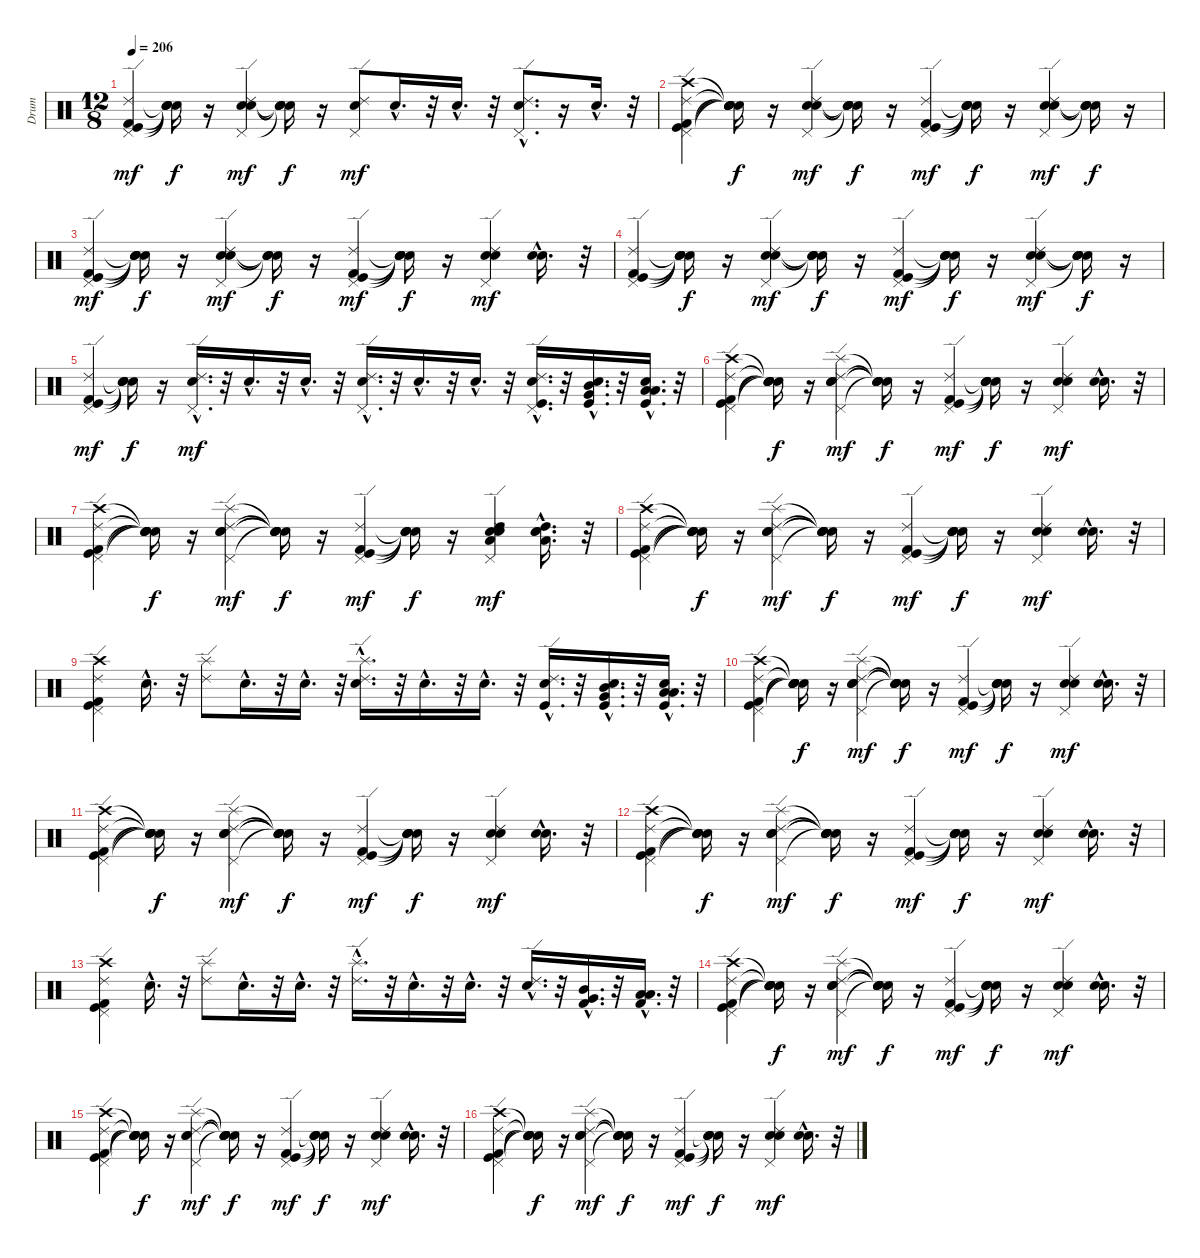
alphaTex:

\track ("Drum" "Drum") {instrument percussion}
\staff {score}
\articulation defaults
\ts (12 8)
\tempo 206
\clef neutral
\ks c
("Kick (hit)" "Kick (hit) 2" "Pedal Hi-Hat (hit)" "Ride (edge) 2").4{dy mf} ("Snare (hit)"{t} "Snare (hit)"{t} "Snare (hit)"{t} "Snare (hit)"{t}).16{dy f} r.16 ("Snare (hit) 2" "Pedal Hi-Hat (hit)" "Electric Snare (hit)" "Ride (edge) 2").4{dy mf} ("Snare (hit)"{t} "Snare (hit)"{t} "Snare (hit)"{t} "Snare (hit)"{t}).16{dy f} r.16 ("Snare (hit) 2" "Pedal Hi-Hat (hit)" "Ride (edge) 2").8{dy mf} "Snare (hit) 2"{hac}.16{d} r.32 "Snare (hit) 2"{hac}.16{d} r.32 ("Ride (edge) 2"{hac} "Pedal Hi-Hat (hit)"{hac} "Snare (hit) 2"{hac}).8{d} r.16 "Snare (hit) 2"{hac}.16{d} r.32 |
("Pedal Hi-Hat (hit)" "Crash high (hit)" "Kick (hit) 2" "Kick (hit)" "Ride (edge) 2").4 ("Snare (hit)"{t} "Snare (hit)"{t} "Snare (hit)"{t} "Snare (hit)"{t} "Snare (hit)"{t}).16{dy f} r.16 ("Electric Snare (hit)" "Snare (hit) 2" "Pedal Hi-Hat (hit)" "Ride (edge) 2").4{dy mf} ("Snare (hit)"{t} "Snare (hit)"{t} "Snare (hit)"{t} "Snare (hit)"{t}).16{dy f} r.16 ("Kick (hit) 2" "Pedal Hi-Hat (hit)" "Kick (hit)" "Ride (edge) 2").4{dy mf} ("Snare (hit)"{t} "Snare (hit)"{t} "Snare (hit)"{t} "Snare (hit)"{t}).16{dy f} r.16 ("Pedal Hi-Hat (hit)" "Electric Snare (hit)" "Snare (hit) 2" "Ride (edge) 2").4{dy mf} ("Snare (hit)"{t} "Snare (hit)"{t} "Snare (hit)"{t} "Snare (hit)"{t}).16{dy f} r.16 |
("Kick (hit) 2" "Kick (hit)" "Pedal Hi-Hat (hit)" "Ride (edge) 2").4{dy mf} ("Snare (hit)"{t} "Snare (hit)"{t} "Snare (hit)"{t} "Snare (hit)"{t}).16{dy f} r.16 ("Pedal Hi-Hat (hit)" "Electric Snare (hit)" "Snare (hit) 2" "Ride (edge) 2").4{dy mf} ("Snare (hit)"{t} "Snare (hit)"{t} "Snare (hit)"{t} "Snare (hit)"{t}).16{dy f} r.16 ("Kick (hit)" "Kick (hit) 2" "Pedal Hi-Hat (hit)" "Ride (edge) 2").4{dy mf} ("Snare (hit)"{t} "Snare (hit)"{t} "Snare (hit)"{t} "Snare (hit)"{t}).16{dy f} r.16 ("Pedal Hi-Hat (hit)" "Snare (hit) 2" "Electric Snare (hit)" "Ride (edge) 2").4{dy mf} ("Snare (hit) 2"{hac} "Electric Snare (hit)"{hac}).16{d} r.32 |
("Pedal Hi-Hat (hit)" "Kick (hit) 2" "Kick (hit)" "Ride (edge) 2").4 ("Snare (hit)"{t} "Snare (hit)"{t} "Snare (hit)"{t} "Snare (hit)"{t}).16{dy f} r.16 ("Snare (hit) 2" "Electric Snare (hit)" "Pedal Hi-Hat (hit)" "Ride (edge) 2").4{dy mf} ("Snare (hit)"{t} "Snare (hit)"{t} "Snare (hit)"{t} "Snare (hit)"{t}).16{dy f} r.16 ("Pedal Hi-Hat (hit)" "Kick (hit)" "Kick (hit) 2" "Ride (edge) 2").4{dy mf} ("Snare (hit)"{t} "Snare (hit)"{t} "Snare (hit)"{t} "Snare (hit)"{t}).16{dy f} r.16 ("Electric Snare (hit)" "Snare (hit) 2" "Pedal Hi-Hat (hit)" "Ride (edge) 2").4{dy mf} ("Snare (hit)"{t} "Snare (hit)"{t} "Snare (hit)"{t} "Snare (hit)"{t}).16{dy f} r.16 |
("Kick (hit)" "Kick (hit) 2" "Pedal Hi-Hat (hit)" "Ride (edge) 2").4{dy mf} ("Snare (hit)"{t} "Snare (hit)"{t} "Snare (hit)"{t} "Snare (hit)"{t}).16{dy f} r.16 ("Snare (hit) 2"{hac} "Ride (edge) 2"{hac} "Pedal Hi-Hat (hit)"{hac}).16{d dy mf} r.32 "Snare (hit) 2"{hac}.16{d} r.32 "Snare (hit) 2"{hac}.16{d} r.32 ("Electric Snare (hit)"{hac} "Ride (edge) 2"{hac} "Pedal Hi-Hat (hit)"{hac}).16{d} r.32 "Electric Snare (hit)"{hac}.16{d} r.32 "Electric Snare (hit)"{hac}.16{d} r.32 ("Snare (hit) 2"{hac} "Ride (edge) 2"{hac} "Pedal Hi-Hat (hit)"{hac} "Kick (hit)"{hac}).16{d} r.32 ("Snare (hit) 2"{hac} "Mid Tom (hit)"{hac} "Very Low Tom (hit)"{hac} "Kick (hit)"{hac}).16{d} r.32 ("Snare (hit) 2"{hac} "Low Tom (hit)"{hac} "Low Floor Tom (hit)"{hac} "Kick (hit)"{hac}).16{d} r.32 |
("Crash high (hit)" "Ride (edge) 2" "Kick (hit) 2" "Kick (hit)" "Pedal Hi-Hat (hit)").4 ("Snare (hit)"{t} "Snare (hit)"{t} "Snare (hit)"{t} "Snare (hit)"{t} "Snare (hit)"{t}).16{dy f} r.16 ("Splash (hit)" "Ride (edge) 2" "Pedal Hi-Hat (hit)" "Electric Snare (hit)" "Snare (hit) 2").4{dy mf} ("Snare (hit)"{t} "Snare (hit)"{t} "Snare (hit)"{t} "Snare (hit)"{t} "Snare (hit)"{t}).16{dy f} r.16 ("Ride (edge) 2" "Kick (hit)" "Kick (hit) 2" "Pedal Hi-Hat (hit)").4{dy mf} ("Snare (hit)"{t} "Snare (hit)"{t} "Snare (hit)"{t} "Snare (hit)"{t}).16{dy f} r.16 ("Ride (edge) 2" "Pedal Hi-Hat (hit)" "Snare (hit) 2" "Electric Snare (hit)").4{dy mf} ("Snare (hit) 2"{hac} "Electric Snare (hit)"{hac}).16{d} r.32 |
("Kick (hit)" "Crash high (hit)" "Pedal Hi-Hat (hit)" "Kick (hit) 2" "Ride (edge) 2").4 ("Snare (hit)"{t} "Snare (hit)"{t} "Snare (hit)"{t} "Snare (hit)"{t} "Snare (hit)"{t}).16{dy f} r.16 ("Pedal Hi-Hat (hit)" "Snare (hit) 2" "Electric Snare (hit)" "Splash (hit)" "Ride (edge) 2").4{dy mf} ("Snare (hit)"{t} "Snare (hit)"{t} "Snare (hit)"{t} "Snare (hit)"{t} "Snare (hit)"{t}).16{dy f} r.16 ("Kick (hit) 2" "Kick (hit)" "Ride (edge) 2" "Pedal Hi-Hat (hit)").4{dy mf} ("Snare (hit)"{t} "Snare (hit)"{t} "Snare (hit)"{t} "Snare (hit)"{t}).16{dy f} r.16 ("Snare (hit) 2" "Ride (edge) 2" "Electric Snare (hit)" "Pedal Hi-Hat (hit)" "High Tom (hit)" "Low Tom (hit)").4{dy mf} ("Snare (hit) 2"{hac} "Electric Snare (hit)"{hac} "Low Tom (hit)"{hac} "High Tom (hit)"{hac}).16{d} r.32 |
("Crash high (hit)" "Ride (edge) 2" "Kick (hit) 2" "Kick (hit)" "Pedal Hi-Hat (hit)").4 ("Snare (hit)"{t} "Snare (hit)"{t} "Snare (hit)"{t} "Snare (hit)"{t} "Snare (hit)"{t}).16{dy f} r.16 ("Splash (hit)" "Ride (edge) 2" "Pedal Hi-Hat (hit)" "Electric Snare (hit)" "Snare (hit) 2").4{dy mf} ("Snare (hit)"{t} "Snare (hit)"{t} "Snare (hit)"{t} "Snare (hit)"{t} "Snare (hit)"{t}).16{dy f} r.16 ("Ride (edge) 2" "Kick (hit)" "Kick (hit) 2" "Pedal Hi-Hat (hit)").4{dy mf} ("Snare (hit)"{t} "Snare (hit)"{t} "Snare (hit)"{t} "Snare (hit)"{t}).16{dy f} r.16 ("Ride (edge) 2" "Pedal Hi-Hat (hit)" "Snare (hit) 2" "Electric Snare (hit)").4{dy mf} ("Snare (hit) 2"{hac} "Electric Snare (hit)"{hac}).16{d} r.32 |
("Crash high (hit)" "Ride (edge) 2" "Kick (hit) 2" "Kick (hit)" "Pedal Hi-Hat (hit)").4 "Snare (hit) 2"{hac}.16{d} r.32 ("Splash (hit)" "Ride (edge) 2").8 "Snare (hit) 2"{hac}.16{d} r.32 "Snare (hit) 2"{hac}.16{d} r.32 ("Electric Snare (hit)"{hac} "Splash (hit)"{hac} "Ride (edge) 2"{hac}).16{d} r.32 "Electric Snare (hit)"{hac}.16{d} r.32 "Electric Snare (hit)"{hac}.16{d} r.32 ("Snare (hit) 2"{hac} "Kick (hit)"{hac} "Ride (edge) 2"{hac}).16{d} r.32 ("Snare (hit) 2"{hac} "Kick (hit)"{hac} "Mid Tom (hit)"{hac} "Very Low Tom (hit)"{hac}).16{d} r.32 ("Snare (hit) 2"{hac} "Kick (hit)"{hac} "Low Tom (hit)"{hac} "Low Floor Tom (hit)"{hac}).16{d} r.32 |
("Crash high (hit)" "Ride (edge) 2" "Kick (hit) 2" "Kick (hit)" "Pedal Hi-Hat (hit)").4 ("Snare (hit)"{t} "Snare (hit)"{t} "Snare (hit)"{t} "Snare (hit)"{t} "Snare (hit)"{t}).16{dy f} r.16 ("Splash (hit)" "Ride (edge) 2" "Pedal Hi-Hat (hit)" "Electric Snare (hit)" "Snare (hit) 2").4{dy mf} ("Snare (hit)"{t} "Snare (hit)"{t} "Snare (hit)"{t} "Snare (hit)"{t} "Snare (hit)"{t}).16{dy f} r.16 ("Ride (edge) 2" "Kick (hit)" "Kick (hit) 2" "Pedal Hi-Hat (hit)").4{dy mf} ("Snare (hit)"{t} "Snare (hit)"{t} "Snare (hit)"{t} "Snare (hit)"{t}).16{dy f} r.16 ("Ride (edge) 2" "Pedal Hi-Hat (hit)" "Snare (hit) 2" "Electric Snare (hit)").4{dy mf} ("Snare (hit) 2"{hac} "Electric Snare (hit)"{hac}).16{d} r.32 |
("Pedal Hi-Hat (hit)" "Kick (hit)" "Kick (hit) 2" "Ride (edge) 2" "Crash high (hit)").4 ("Snare (hit)"{t} "Snare (hit)"{t} "Snare (hit)"{t} "Snare (hit)"{t} "Snare (hit)"{t}).16{dy f} r.16 ("Snare (hit) 2" "Electric Snare (hit)" "Pedal Hi-Hat (hit)" "Ride (edge) 2" "Splash (hit)").4{dy mf} ("Snare (hit)"{t} "Snare (hit)"{t} "Snare (hit)"{t} "Snare (hit)"{t} "Snare (hit)"{t}).16{dy f} r.16 ("Pedal Hi-Hat (hit)" "Kick (hit) 2" "Kick (hit)" "Ride (edge) 2").4{dy mf} ("Snare (hit)"{t} "Snare (hit)"{t} "Snare (hit)"{t} "Snare (hit)"{t}).16{dy f} r.16 ("Electric Snare (hit)" "Snare (hit) 2" "Pedal Hi-Hat (hit)" "Ride (edge) 2").4{dy mf} ("Electric Snare (hit)"{hac} "Snare (hit) 2"{hac}).16{d} r.32 |
("Crash high (hit)" "Ride (edge) 2" "Kick (hit) 2" "Kick (hit)" "Pedal Hi-Hat (hit)").4 ("Snare (hit)"{t} "Snare (hit)"{t} "Snare (hit)"{t} "Snare (hit)"{t} "Snare (hit)"{t}).16{dy f} r.16 ("Splash (hit)" "Ride (edge) 2" "Pedal Hi-Hat (hit)" "Electric Snare (hit)" "Snare (hit) 2").4{dy mf} ("Snare (hit)"{t} "Snare (hit)"{t} "Snare (hit)"{t} "Snare (hit)"{t} "Snare (hit)"{t}).16{dy f} r.16 ("Ride (edge) 2" "Kick (hit)" "Kick (hit) 2" "Pedal Hi-Hat (hit)").4{dy mf} ("Snare (hit)"{t} "Snare (hit)"{t} "Snare (hit)"{t} "Snare (hit)"{t}).16{dy f} r.16 ("Ride (edge) 2" "Pedal Hi-Hat (hit)" "Snare (hit) 2" "Electric Snare (hit)").4{dy mf} ("Snare (hit) 2"{hac} "Electric Snare (hit)"{hac}).16{d} r.32 |
("Crash high (hit)" "Ride (edge) 2" "Kick (hit) 2" "Kick (hit)" "Pedal Hi-Hat (hit)").4 "Snare (hit) 2"{hac}.16{d} r.32 ("Splash (hit)" "Ride (edge) 2").8 "Snare (hit) 2"{hac}.16{d} r.32 "Snare (hit) 2"{hac}.16{d} r.32 ("Splash (hit)"{hac} "Ride (edge) 2"{hac}).16{d} r.32 "Electric Snare (hit)"{hac}.16{d} r.32 "Electric Snare (hit)"{hac}.16{d} r.32 ("Snare (hit) 2"{hac} "Ride (edge) 2"{hac}).16{d} r.32 ("Kick (hit) 2"{hac} "Mid Tom (hit)"{hac} "Very Low Tom (hit)"{hac}).16{d} r.32 ("Kick (hit) 2"{hac} "Low Tom (hit)"{hac} "Low Floor Tom (hit)"{hac}).16{d} r.32 |
("Crash high (hit)" "Ride (edge) 2" "Kick (hit) 2" "Kick (hit)" "Pedal Hi-Hat (hit)").4 ("Snare (hit)"{t} "Snare (hit)"{t} "Snare (hit)"{t} "Snare (hit)"{t} "Snare (hit)"{t}).16{dy f} r.16 ("Splash (hit)" "Ride (edge) 2" "Pedal Hi-Hat (hit)" "Electric Snare (hit)" "Snare (hit) 2").4{dy mf} ("Snare (hit)"{t} "Snare (hit)"{t} "Snare (hit)"{t} "Snare (hit)"{t} "Snare (hit)"{t}).16{dy f} r.16 ("Ride (edge) 2" "Kick (hit)" "Kick (hit) 2" "Pedal Hi-Hat (hit)").4{dy mf} ("Snare (hit)"{t} "Snare (hit)"{t} "Snare (hit)"{t} "Snare (hit)"{t}).16{dy f} r.16 ("Ride (edge) 2" "Pedal Hi-Hat (hit)" "Snare (hit) 2" "Electric Snare (hit)").4{dy mf} ("Snare (hit) 2"{hac} "Electric Snare (hit)"{hac}).16{d} r.32 |
("Pedal Hi-Hat (hit)" "Kick (hit)" "Kick (hit) 2" "Ride (edge) 2" "Crash high (hit)").4 ("Snare (hit)"{t} "Snare (hit)"{t} "Snare (hit)"{t} "Snare (hit)"{t} "Snare (hit)"{t}).16{dy f} r.16 ("Snare (hit) 2" "Electric Snare (hit)" "Pedal Hi-Hat (hit)" "Ride (edge) 2" "Splash (hit)").4{dy mf} ("Snare (hit)"{t} "Snare (hit)"{t} "Snare (hit)"{t} "Snare (hit)"{t} "Snare (hit)"{t}).16{dy f} r.16 ("Pedal Hi-Hat (hit)" "Kick (hit) 2" "Kick (hit)" "Ride (edge) 2").4{dy mf} ("Snare (hit)"{t} "Snare (hit)"{t} "Snare (hit)"{t} "Snare (hit)"{t}).16{dy f} r.16 ("Electric Snare (hit)" "Snare (hit) 2" "Pedal Hi-Hat (hit)" "Ride (edge) 2").4{dy mf} ("Electric Snare (hit)"{hac} "Snare (hit) 2"{hac}).16{d} r.32 |
("Ride (edge) 2" "Pedal Hi-Hat (hit)" "Crash high (hit)" "Kick (hit) 2" "Kick (hit)").4 ("Snare (hit)"{t} "Snare (hit)"{t} "Snare (hit)"{t} "Snare (hit)"{t} "Snare (hit)"{t}).16{dy f} r.16 ("Electric Snare (hit)" "Ride (edge) 2" "Pedal Hi-Hat (hit)" "Snare (hit) 2" "Splash (hit)").4{dy mf} ("Snare (hit)"{t} "Snare (hit)"{t} "Snare (hit)"{t} "Snare (hit)"{t} "Snare (hit)"{t}).16{dy f} r.16 ("Kick (hit)" "Pedal Hi-Hat (hit)" "Ride (edge) 2" "Kick (hit) 2").4{dy mf} ("Snare (hit)"{t} "Snare (hit)"{t} "Snare (hit)"{t} "Snare (hit)"{t}).16{dy f} r.16 ("Pedal Hi-Hat (hit)" "Snare (hit) 2" "Ride (edge) 2" "Electric Snare (hit)").4{dy mf} ("Snare (hit) 2"{hac} "Electric Snare (hit)"{hac}).16{d} r.32
